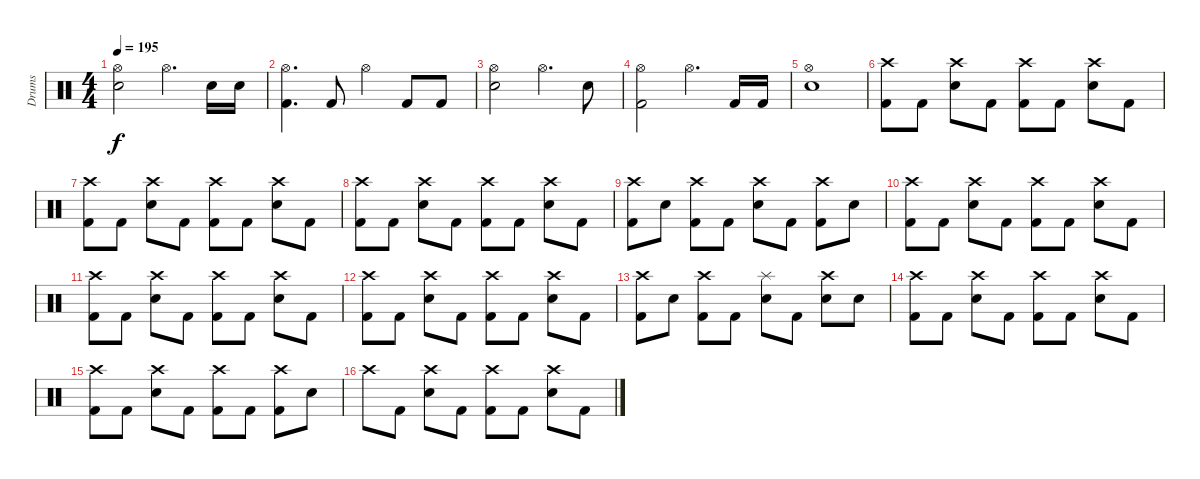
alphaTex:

\track ("Drums" "Drums") {instrument percussion}
\staff {score}
\articulation defaults
\ts (4 4)
\tempo 195
\clef neutral
\ks c
("Hi-Hat (open)" "Electric Snare (hit)").2{dy f} "Hi-Hat (open)".4{d} "Electric Snare (hit)".16 "Electric Snare (hit)".16 |
("Hi-Hat (open)" "Kick (hit) 2").4{d} "Kick (hit) 2".8 "Hi-Hat (open)".4 "Kick (hit) 2".8 "Kick (hit) 2".8 |
("Hi-Hat (open)" "Electric Snare (hit)").2 "Hi-Hat (open)".4{d} "Electric Snare (hit)".8 |
("Hi-Hat (open)" "Kick (hit) 2").2 "Hi-Hat (open)".4{d} "Kick (hit) 2".16 "Kick (hit) 2".16 |
("Hi-Hat (open)" "Electric Snare (hit)").1 |
("Crash high (hit)" "Kick (hit) 2").8 "Kick (hit) 2".8 ("Crash high (hit)" "Electric Snare (hit)").8 "Kick (hit) 2".8 ("Crash high (hit)" "Kick (hit) 2").8 "Kick (hit) 2".8 ("Crash high (hit)" "Electric Snare (hit)").8 "Kick (hit) 2".8 |
("Crash high (hit)" "Kick (hit) 2").8 "Kick (hit) 2".8 ("Crash high (hit)" "Electric Snare (hit)").8 "Kick (hit) 2".8 ("Crash high (hit)" "Kick (hit) 2").8 "Kick (hit) 2".8 ("Crash high (hit)" "Electric Snare (hit)").8 "Kick (hit) 2".8 |
("Crash high (hit)" "Kick (hit) 2").8 "Kick (hit) 2".8 ("Crash high (hit)" "Electric Snare (hit)").8 "Kick (hit) 2".8 ("Crash high (hit)" "Kick (hit) 2").8 "Kick (hit) 2".8 ("Crash high (hit)" "Electric Snare (hit)").8 "Kick (hit) 2".8 |
("Crash high (hit)" "Kick (hit) 2").8 "Electric Snare (hit)".8 ("Crash high (hit)" "Kick (hit) 2").8 "Kick (hit) 2".8 ("Crash high (hit)" "Electric Snare (hit)").8 "Kick (hit) 2".8 ("Crash high (hit)" "Kick (hit) 2").8 "Electric Snare (hit)".8 |
("Crash high (hit)" "Kick (hit) 2").8 "Kick (hit) 2".8 ("Crash high (hit)" "Electric Snare (hit)").8 "Kick (hit) 2".8 ("Crash high (hit)" "Kick (hit) 2").8 "Kick (hit) 2".8 ("Crash high (hit)" "Electric Snare (hit)").8 "Kick (hit) 2".8 |
("Crash high (hit)" "Kick (hit) 2").8 "Kick (hit) 2".8 ("Crash high (hit)" "Electric Snare (hit)").8 "Kick (hit) 2".8 ("Crash high (hit)" "Kick (hit) 2").8 "Kick (hit) 2".8 ("Crash high (hit)" "Electric Snare (hit)").8 "Kick (hit) 2".8 |
("Crash high (hit)" "Kick (hit) 2").8 "Kick (hit) 2".8 ("Crash high (hit)" "Electric Snare (hit)").8 "Kick (hit) 2".8 ("Crash high (hit)" "Kick (hit) 2").8 "Kick (hit) 2".8 ("Crash high (hit)" "Electric Snare (hit)").8 "Kick (hit) 2".8 |
("Crash high (hit)" "Kick (hit) 2").8 "Electric Snare (hit)".8 ("Crash high (hit)" "Kick (hit) 2").8 "Kick (hit) 2".8 ("Splash (hit)" "Electric Snare (hit)").8 "Kick (hit) 2".8 ("Crash high (hit)" "Electric Snare (hit)").8 "Electric Snare (hit)".8 |
("Crash high (hit)" "Kick (hit) 2").8 "Kick (hit) 2".8 ("Crash high (hit)" "Electric Snare (hit)").8 "Kick (hit) 2".8 ("Crash high (hit)" "Kick (hit) 2").8 "Kick (hit) 2".8 ("Crash high (hit)" "Electric Snare (hit)").8 "Kick (hit) 2".8 |
("Crash high (hit)" "Kick (hit) 2").8 "Kick (hit) 2".8 ("Crash high (hit)" "Electric Snare (hit)").8 "Kick (hit) 2".8 ("Crash high (hit)" "Kick (hit) 2").8 "Kick (hit) 2".8 ("Crash high (hit)" "Kick (hit) 2").8 "Electric Snare (hit)".8 |
"Crash high (hit)".8 "Kick (hit) 2".8 ("Crash high (hit)" "Electric Snare (hit)").8 "Kick (hit) 2".8 ("Crash high (hit)" "Kick (hit) 2").8 "Kick (hit) 2".8 ("Crash high (hit)" "Electric Snare (hit)").8 "Kick (hit) 2".8
